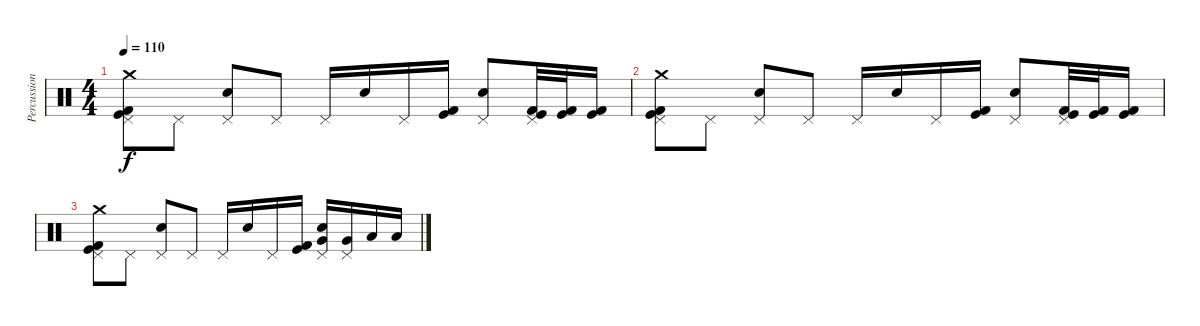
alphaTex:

\track ("Percussions" "Percussion") {instrument percussion}
\staff {score}
\articulation defaults
\ts (4 4)
\tempo 110
\clef neutral
\ks c
("Crash medium (hit)" "Pedal Hi-Hat (hit)" "Kick (hit)" "Kick (hit) 2").8{dy f} "Pedal Hi-Hat (hit)".8 ("Pedal Hi-Hat (hit)" "Electric Snare (hit)").8 "Pedal Hi-Hat (hit)".8 "Pedal Hi-Hat (hit)".16 "Electric Snare (hit)".16 "Pedal Hi-Hat (hit)".16 ("Kick (hit)" "Kick (hit) 2").16 ("Pedal Hi-Hat (hit)" "Electric Snare (hit)").8 ("Pedal Hi-Hat (hit)" "Kick (hit)" "Kick (hit) 2").32 ("Kick (hit)" "Kick (hit) 2").32 ("Kick (hit)" "Kick (hit) 2").16 |
("Crash medium (hit)" "Pedal Hi-Hat (hit)" "Kick (hit)" "Kick (hit) 2").8 "Pedal Hi-Hat (hit)".8 ("Pedal Hi-Hat (hit)" "Electric Snare (hit)").8 "Pedal Hi-Hat (hit)".8 "Pedal Hi-Hat (hit)".16 "Electric Snare (hit)".16 "Pedal Hi-Hat (hit)".16 ("Kick (hit)" "Kick (hit) 2").16 ("Pedal Hi-Hat (hit)" "Electric Snare (hit)").8 ("Pedal Hi-Hat (hit)" "Kick (hit)" "Kick (hit) 2").32 ("Kick (hit)" "Kick (hit) 2").32 ("Kick (hit)" "Kick (hit) 2").16 |
("Crash medium (hit)" "Pedal Hi-Hat (hit)" "Kick (hit)" "Kick (hit) 2").8 "Pedal Hi-Hat (hit)".8 ("Pedal Hi-Hat (hit)" "Electric Snare (hit)").8 "Pedal Hi-Hat (hit)".8 "Pedal Hi-Hat (hit)".16 "Electric Snare (hit)".16 "Pedal Hi-Hat (hit)".16 ("Kick (hit)" "Kick (hit) 2").16 ("Pedal Hi-Hat (hit)" "Electric Snare (hit)" "Very Low Tom (hit)").16 ("Pedal Hi-Hat (hit)" "Very Low Tom (hit)").16 "Low Floor Tom (hit)".16 "Low Floor Tom (hit)".16
